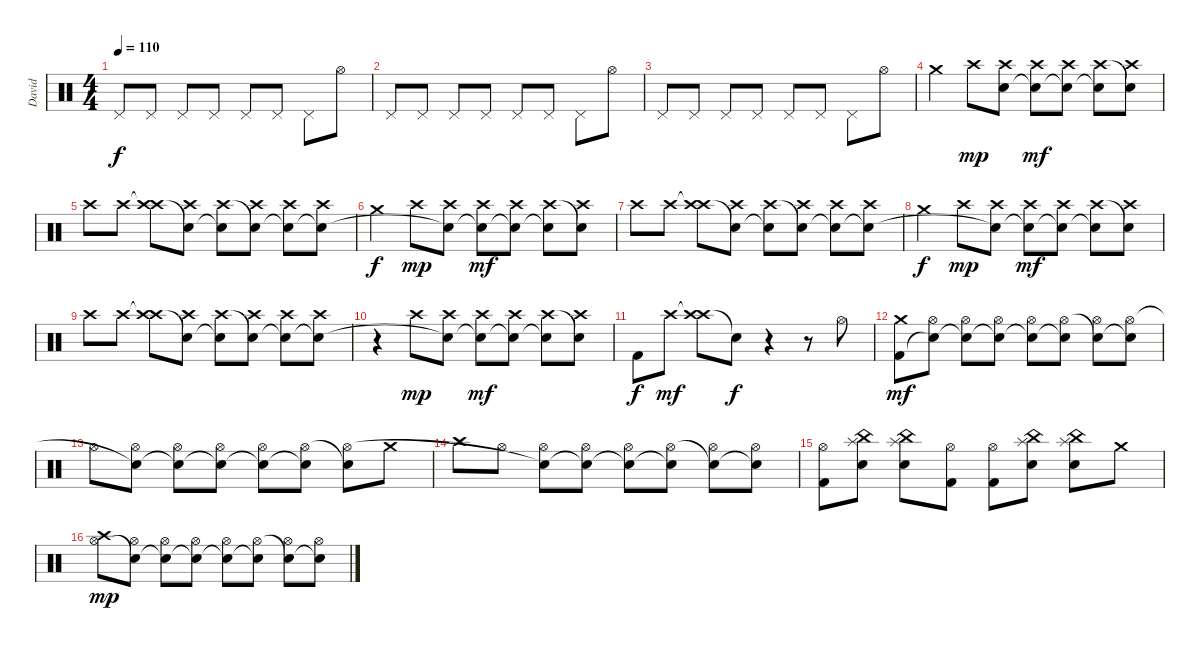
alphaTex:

\track ("David" "David") {instrument percussion}
\staff {score}
\articulation defaults
\ts (4 4)
\tempo 110
\clef neutral
\ks c "Pedal Hi-Hat (hit)".8{dy f} "Pedal Hi-Hat (hit)".8 "Pedal Hi-Hat (hit)".8 "Pedal Hi-Hat (hit)".8 "Pedal Hi-Hat (hit)".8 "Pedal Hi-Hat (hit)".8 "Pedal Hi-Hat (hit)".8 "Hi-Hat (open)".8
|
"Pedal Hi-Hat (hit)".8 "Pedal Hi-Hat (hit)".8 "Pedal Hi-Hat (hit)".8 "Pedal Hi-Hat (hit)".8 "Pedal Hi-Hat (hit)".8 "Pedal Hi-Hat (hit)".8 "Pedal Hi-Hat (hit)".8 "Hi-Hat (open)".8 |
"Pedal Hi-Hat (hit)".8 "Pedal Hi-Hat (hit)".8 "Pedal Hi-Hat (hit)".8 "Pedal Hi-Hat (hit)".8 "Pedal Hi-Hat (hit)".8 "Pedal Hi-Hat (hit)".8 "Pedal Hi-Hat (hit)".8 "Hi-Hat (open)".8 |
"Crash medium (hit)".4 "Crash high (hit)".8{dy mp} ("Crash high (hit)" "Snare (hit)").8 ("Crash high (hit)" "Snare (hit)"{t}).8{dy mf} ("Crash high (hit)" "Snare (hit)"{t}).8 ("Crash high (hit)" "Snare (hit)"{t}).8 ("Snare (hit)"{t} "Crash high (hit)").8 |
"Crash high (hit)".8 "Crash high (hit)".8 ("Crash high (hit)"{t} "Crash high (hit)").8 ("Snare (hit)"{t} "Crash high (hit)").8 ("Snare (hit)"{t} "Crash high (hit)").8 ("Crash high (hit)" "Snare (hit)"{t}).8 ("Crash high (hit)" "Snare (hit)"{t}).8 ("Crash high (hit)" "Snare (hit)"{t}).8 |
"Crash medium (hit)".4{dy f} "Crash high (hit)".8{dy mp} ("Crash high (hit)" "Snare (hit)"{t}).8 ("Crash high (hit)" "Snare (hit)"{t}).8{dy mf} ("Crash high (hit)" "Snare (hit)"{t}).8 ("Crash high (hit)" "Snare (hit)"{t}).8 ("Snare (hit)"{t} "Crash high (hit)").8 |
"Crash high (hit)".8 "Crash high (hit)".8 ("Crash high (hit)"{t} "Crash high (hit)").8 ("Snare (hit)"{t} "Crash high (hit)").8 ("Snare (hit)"{t} "Crash high (hit)").8 ("Crash high (hit)" "Snare (hit)"{t}).8 ("Crash high (hit)" "Snare (hit)"{t}).8 ("Crash high (hit)" "Snare (hit)"{t}).8 |
"Crash medium (hit)".4{dy f} "Crash high (hit)".8{dy mp} ("Crash high (hit)" "Snare (hit)"{t}).8 ("Crash high (hit)" "Snare (hit)"{t}).8{dy mf} ("Crash high (hit)" "Snare (hit)"{t}).8 ("Crash high (hit)" "Snare (hit)"{t}).8 ("Snare (hit)"{t} "Crash high (hit)").8 |
"Crash high (hit)".8 "Crash high (hit)".8 ("Crash high (hit)"{t} "Crash high (hit)").8 ("Snare (hit)"{t} "Crash high (hit)").8 ("Snare (hit)"{t} "Crash high (hit)").8 ("Crash high (hit)" "Snare (hit)"{t}).8 ("Crash high (hit)" "Snare (hit)"{t}).8 ("Crash high (hit)" "Snare (hit)"{t}).8 |
r.4 "Crash high (hit)".8{dy mp} ("Crash high (hit)" "Snare (hit)"{t}).8 ("Crash high (hit)" "Snare (hit)"{t}).8{dy mf} ("Crash high (hit)" "Snare (hit)"{t}).8 ("Crash high (hit)" "Snare (hit)"{t}).8 ("Snare (hit)"{t} "Crash high (hit)").8 |
"Kick (hit) 2".8{dy f} "Crash high (hit)".8{dy mf} ("Crash high (hit)"{t} "Crash high (hit)").8 "Snare (hit)"{t}.8{dy f} r.4 r.8 "Hi-Hat (open)".8 |
("Crash medium (hit)" "Kick (hit) 2").8{dy mf} ("Hi-Hat (open)" "Snare (hit)"{t}).8 ("Hi-Hat (open)" "Snare (hit)"{t}).8 ("Hi-Hat (open)" "Snare (hit)"{t}).8 ("Hi-Hat (open)" "Snare (hit)"{t}).8 ("Hi-Hat (open)" "Snare (hit)"{t}).8 ("Snare (hit)"{t} "Hi-Hat (open)").8 ("Snare (hit)"{t} "Hi-Hat (open)").8 |
"Hi-Hat (open)".8 ("Hi-Hat (open)" "Snare (hit)"{t}).8 ("Hi-Hat (open)" "Snare (hit)"{t}).8 ("Hi-Hat (open)" "Snare (hit)"{t}).8 ("Hi-Hat (open)" "Snare (hit)"{t}).8 ("Hi-Hat (open)" "Snare (hit)"{t}).8 ("Snare (hit)"{t} "Hi-Hat (open)").8 "Crash medium (hit)".8 |
"Crash high (hit)".8 "Hi-Hat (open)".8 ("Hi-Hat (open)" "Snare (hit)"{t}).8 ("Hi-Hat (open)" "Snare (hit)"{t}).8 ("Hi-Hat (open)" "Snare (hit)"{t}).8 ("Hi-Hat (open)" "Snare (hit)"{t}).8 ("Snare (hit)"{t} "Hi-Hat (open)").8 ("Snare (hit)"{t} "Hi-Hat (open)").8 |
("Hi-Hat (open)" "Kick (hit) 2").8 ("Splash (hit)" "China (hit)" "Snare (hit) 2").8 ("Splash (hit)" "China (hit)" "Snare (hit) 2").8 ("Hi-Hat (open)" "Kick (hit) 2").8 ("Hi-Hat (open)" "Kick (hit) 2").8 ("Splash (hit)" "China (hit)" "Snare (hit) 2").8 ("Splash (hit)" "China (hit)" "Snare (hit) 2").8 "Crash medium (hit)".8 |
("Crash high (hit)" "Hi-Hat (open)").8{dy mp} ("Hi-Hat (open)" "Snare (hit)"{t}).8 ("Hi-Hat (open)" "Snare (hit)"{t}).8 ("Hi-Hat (open)" "Snare (hit)"{t}).8 ("Hi-Hat (open)" "Snare (hit)"{t}).8 ("Hi-Hat (open)" "Snare (hit)"{t}).8 ("Snare (hit)"{t} "Hi-Hat (open)").8 ("Snare (hit)"{t} "Hi-Hat (open)").8
